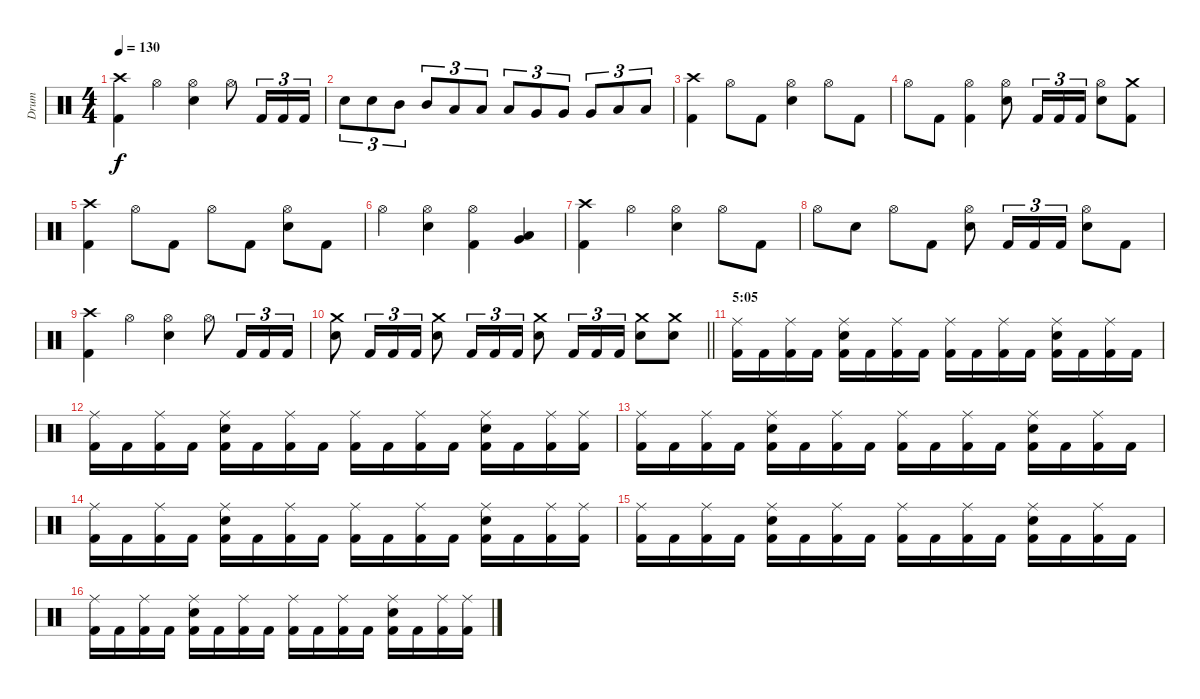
\track ("Drum" "Drum") {instrument percussion}
\staff {score}
\articulation defaults
\ts (4 4)
\tempo 130
\clef neutral
\ks c
("Kick (hit) 2" "Crash high (hit)").4{dy f} "Hi-Hat (open)".4 ("Electric Snare (hit)" "Hi-Hat (open)").4 "Hi-Hat (open)".8 "Kick (hit) 2".16{tu (3 2)} "Kick (hit) 2".16{tu (3 2)} "Kick (hit) 2".16{tu (3 2)} |
"Electric Snare (hit)".8{tu (3 2)} "Electric Snare (hit)".8{tu (3 2)} "Mid Tom (hit)".8{tu (3 2)} "Mid Tom (hit)".8{tu (3 2)} "Low Tom (hit)".8{tu (3 2)} "Low Tom (hit)".8{tu (3 2)} "Low Tom (hit)".8{tu (3 2)} "Very Low Tom (hit)".8{tu (3 2)} "Very Low Tom (hit)".8{tu (3 2)} "Very Low Tom (hit)".8{tu (3 2)} "Low Tom (hit)".8{tu (3 2)} "Low Tom (hit)".8{tu (3 2)} |
("Kick (hit) 2" "Crash high (hit)").4 "Hi-Hat (open)".8 "Kick (hit) 2".8 ("Electric Snare (hit)" "Hi-Hat (open)").4 "Hi-Hat (open)".8 "Kick (hit) 2".8 |
"Hi-Hat (open)".8 "Kick (hit) 2".8 ("Kick (hit) 2" "Hi-Hat (open)").4 ("Electric Snare (hit)" "Hi-Hat (open)").8 "Kick (hit) 2".16{tu (3 2)} "Kick (hit) 2".16{tu (3 2)} "Kick (hit) 2".16{tu (3 2)} ("Electric Snare (hit)" "Hi-Hat (open)").8 ("Kick (hit) 2" "Crash medium (hit)").8 |
("Kick (hit) 2" "Crash high (hit)").4 "Hi-Hat (open)".8 "Kick (hit) 2".8 "Hi-Hat (open)".8 "Kick (hit) 2".8 ("Electric Snare (hit)" "Hi-Hat (open)").8 "Kick (hit) 2".8 |
"Hi-Hat (open)".4 ("Electric Snare (hit)" "Hi-Hat (open)").4 ("Kick (hit) 2" "Hi-Hat (open)").4 ("Low Tom (hit)" "Very Low Tom (hit)").4 |
("Kick (hit) 2" "Crash high (hit)").4 "Hi-Hat (open)".4 ("Electric Snare (hit)" "Hi-Hat (open)").4 "Hi-Hat (open)".8 "Kick (hit) 2".8 |
"Hi-Hat (open)".8 "Electric Snare (hit)".8 "Hi-Hat (open)".8 "Kick (hit) 2".8 ("Electric Snare (hit)" "Hi-Hat (open)").8 "Kick (hit) 2".16{tu (3 2)} "Kick (hit) 2".16{tu (3 2)} "Kick (hit) 2".16{tu (3 2)} ("Electric Snare (hit)" "Hi-Hat (open)").8 "Kick (hit) 2".8 |
("Kick (hit) 2" "Crash high (hit)").4 "Hi-Hat (open)".4 ("Electric Snare (hit)" "Hi-Hat (open)").4 "Hi-Hat (open)".8 "Kick (hit) 2".16{tu (3 2)} "Kick (hit) 2".16{tu (3 2)} "Kick (hit) 2".16{tu (3 2)} |
\barLineRight lightlight
("Electric Snare (hit)" "Crash medium (hit)").8 "Kick (hit) 2".16{tu (3 2)} "Kick (hit) 2".16{tu (3 2)} "Kick (hit) 2".16{tu (3 2)} ("Electric Snare (hit)" "Crash medium (hit)").8 "Kick (hit) 2".16{tu (3 2)} "Kick (hit) 2".16{tu (3 2)} "Kick (hit) 2".16{tu (3 2)} ("Electric Snare (hit)" "Crash medium (hit)").8 "Kick (hit) 2".16{tu (3 2)} "Kick (hit) 2".16{tu (3 2)} "Kick (hit) 2".16{tu (3 2)} ("Electric Snare (hit)" "Crash medium (hit)").8 ("Electric Snare (hit)" "Crash medium (hit)").8 |
\section ("" "5:05")
("Kick (hit) 2" "Ride (middle)").16 "Kick (hit) 2".16 ("Kick (hit) 2" "Ride (middle)").16 "Kick (hit) 2".16 ("Kick (hit) 2" "Electric Snare (hit)" "Ride (middle)").16 "Kick (hit) 2".16 ("Kick (hit) 2" "Ride (middle)").16 "Kick (hit) 2".16 ("Kick (hit) 2" "Ride (middle)").16 "Kick (hit) 2".16 ("Kick (hit) 2" "Ride (middle)").16 "Kick (hit) 2".16 ("Kick (hit) 2" "Electric Snare (hit)" "Ride (middle)").16 "Kick (hit) 2".16 ("Kick (hit) 2" "Ride (middle)").16 "Kick (hit) 2".16 |
("Kick (hit) 2" "Ride (middle)").16 "Kick (hit) 2".16 ("Kick (hit) 2" "Ride (middle)").16 "Kick (hit) 2".16 ("Kick (hit) 2" "Electric Snare (hit)" "Ride (middle)").16 "Kick (hit) 2".16 ("Kick (hit) 2" "Ride (middle)").16 "Kick (hit) 2".16 ("Kick (hit) 2" "Ride (middle)").16 "Kick (hit) 2".16 ("Kick (hit) 2" "Ride (middle)").16 "Kick (hit) 2".16 ("Kick (hit) 2" "Electric Snare (hit)" "Ride (middle)").16 "Kick (hit) 2".16 ("Kick (hit) 2" "Ride (middle)").16 ("Kick (hit) 2" "Ride (middle)").16 |
("Kick (hit) 2" "Ride (middle)").16 "Kick (hit) 2".16 ("Kick (hit) 2" "Ride (middle)").16 "Kick (hit) 2".16 ("Kick (hit) 2" "Electric Snare (hit)" "Ride (middle)").16 "Kick (hit) 2".16 ("Kick (hit) 2" "Ride (middle)").16 "Kick (hit) 2".16 ("Kick (hit) 2" "Ride (middle)").16 "Kick (hit) 2".16 ("Kick (hit) 2" "Ride (middle)").16 "Kick (hit) 2".16 ("Kick (hit) 2" "Electric Snare (hit)" "Ride (middle)").16 "Kick (hit) 2".16 ("Kick (hit) 2" "Ride (middle)").16 "Kick (hit) 2".16 |
("Kick (hit) 2" "Ride (middle)").16 "Kick (hit) 2".16 ("Kick (hit) 2" "Ride (middle)").16 "Kick (hit) 2".16 ("Kick (hit) 2" "Electric Snare (hit)" "Ride (middle)").16 "Kick (hit) 2".16 ("Kick (hit) 2" "Ride (middle)").16 "Kick (hit) 2".16 ("Kick (hit) 2" "Ride (middle)").16 "Kick (hit) 2".16 ("Kick (hit) 2" "Ride (middle)").16 "Kick (hit) 2".16 ("Kick (hit) 2" "Electric Snare (hit)" "Ride (middle)").16 "Kick (hit) 2".16 ("Kick (hit) 2" "Ride (middle)").16 ("Kick (hit) 2" "Ride (middle)").16 |
("Kick (hit) 2" "Ride (middle)").16 "Kick (hit) 2".16 ("Kick (hit) 2" "Ride (middle)").16 "Kick (hit) 2".16 ("Kick (hit) 2" "Electric Snare (hit)" "Ride (middle)").16 "Kick (hit) 2".16 ("Kick (hit) 2" "Ride (middle)").16 "Kick (hit) 2".16 ("Kick (hit) 2" "Ride (middle)").16 "Kick (hit) 2".16 ("Kick (hit) 2" "Ride (middle)").16 "Kick (hit) 2".16 ("Kick (hit) 2" "Electric Snare (hit)" "Ride (middle)").16 "Kick (hit) 2".16 ("Kick (hit) 2" "Ride (middle)").16 "Kick (hit) 2".16 |
("Kick (hit) 2" "Ride (middle)").16 "Kick (hit) 2".16 ("Kick (hit) 2" "Ride (middle)").16 "Kick (hit) 2".16 ("Kick (hit) 2" "Electric Snare (hit)" "Ride (middle)").16 "Kick (hit) 2".16 ("Kick (hit) 2" "Ride (middle)").16 "Kick (hit) 2".16 ("Kick (hit) 2" "Ride (middle)").16 "Kick (hit) 2".16 ("Kick (hit) 2" "Ride (middle)").16 "Kick (hit) 2".16 ("Kick (hit) 2" "Electric Snare (hit)" "Ride (middle)").16 "Kick (hit) 2".16 ("Kick (hit) 2" "Ride (middle)").16 ("Kick (hit) 2" "Ride (middle)").16
